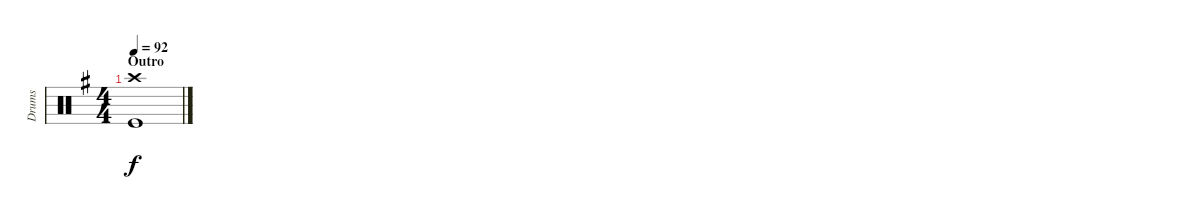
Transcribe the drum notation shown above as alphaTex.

\track ("Drums" "Drums") {instrument percussion}
\staff {score}
\articulation defaults
\ts (4 4)
\section ("" "Outro")
\tempo 92
\clef neutral
\ks eminor
("Crash high (hit)" "Kick (hit)").1{dy f}
